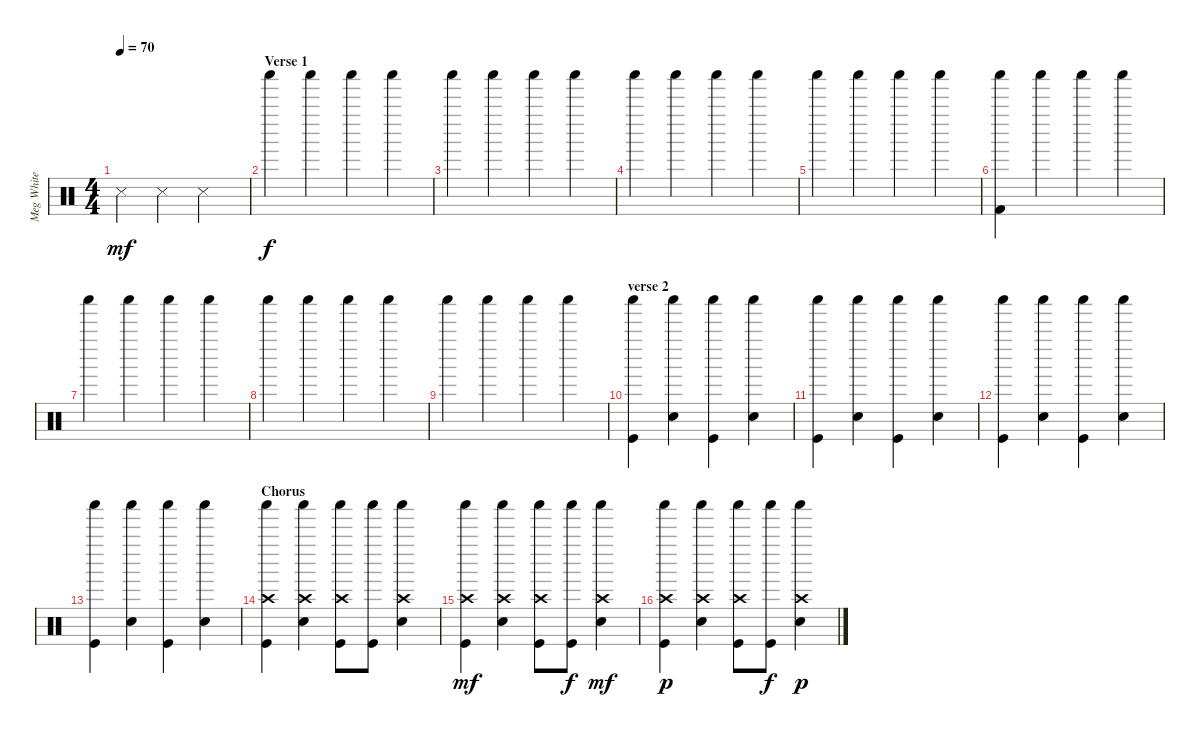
\track ("Meg White" "Meg White") {instrument percussion}
\staff {score}
\articulation defaults
\ts (4 4)
\tempo 70
\clef neutral
\ks c "Snare (side stick) 3".4{dy mf} "Snare (side stick) 3".4 "Snare (side stick) 3".2
|
\section ("" "Verse 1")
"Shaker (hit)".4{dy f} "Shaker (hit)".4 "Shaker (hit)".4 "Shaker (hit)".4 |
"Shaker (hit)".4 "Shaker (hit)".4 "Shaker (hit)".4 "Shaker (hit)".4 |
"Shaker (hit)".4 "Shaker (hit)".4 "Shaker (hit)".4 "Shaker (hit)".4 |
"Shaker (hit)".4 "Shaker (hit)".4 "Shaker (hit)".4 "Shaker (hit)".4 |
("Shaker (hit)" "Kick (hit) 2").4 "Shaker (hit)".4 "Shaker (hit)".4 "Shaker (hit)".4 |
"Shaker (hit)".4 "Shaker (hit)".4 "Shaker (hit)".4 "Shaker (hit)".4 |
"Shaker (hit)".4 "Shaker (hit)".4 "Shaker (hit)".4 "Shaker (hit)".4 |
"Shaker (hit)".4 "Shaker (hit)".4 "Shaker (hit)".4 "Shaker (hit)".4 |
\section ("" "verse 2")
("Kick (hit)" "Shaker (hit)").4 ("Snare (hit) 2" "Shaker (hit)").4 ("Kick (hit)" "Shaker (hit)").4 ("Snare (hit) 2" "Shaker (hit)").4 |
("Kick (hit)" "Shaker (hit)").4 ("Snare (hit) 2" "Shaker (hit)").4 ("Kick (hit)" "Shaker (hit)").4 ("Snare (hit) 2" "Shaker (hit)").4 |
("Kick (hit)" "Shaker (hit)").4 ("Snare (hit) 2" "Shaker (hit)").4 ("Kick (hit)" "Shaker (hit)").4 ("Snare (hit) 2" "Shaker (hit)").4 |
("Kick (hit)" "Shaker (hit)").4 ("Snare (hit) 2" "Shaker (hit)").4 ("Kick (hit)" "Shaker (hit)").4 ("Snare (hit) 2" "Shaker (hit)").4 |
\section ("" "Chorus")
("Kick (hit)" "Shaker (hit)" "Crash high (hit)").4 ("Snare (hit) 2" "Shaker (hit)" "Crash high (hit)").4 ("Kick (hit)" "Shaker (hit)" "Crash high (hit)").8 ("Kick (hit)" "Shaker (hit)").8 ("Snare (hit) 2" "Shaker (hit)" "Crash high (hit)").4 |
("Kick (hit)" "Shaker (hit)" "Crash high (hit)").4{dy mf} ("Snare (hit) 2" "Shaker (hit)" "Crash high (hit)").4 ("Kick (hit)" "Shaker (hit)" "Crash high (hit)").8 ("Kick (hit)" "Shaker (hit)").8{dy f} ("Snare (hit) 2" "Shaker (hit)" "Crash high (hit)").4{dy mf} |
("Kick (hit)" "Shaker (hit)" "Crash high (hit)").4{dy p} ("Snare (hit) 2" "Shaker (hit)" "Crash high (hit)").4 ("Kick (hit)" "Shaker (hit)" "Crash high (hit)").8 ("Kick (hit)" "Shaker (hit)").8{dy f} ("Snare (hit) 2" "Shaker (hit)" "Crash high (hit)").4{dy p}
